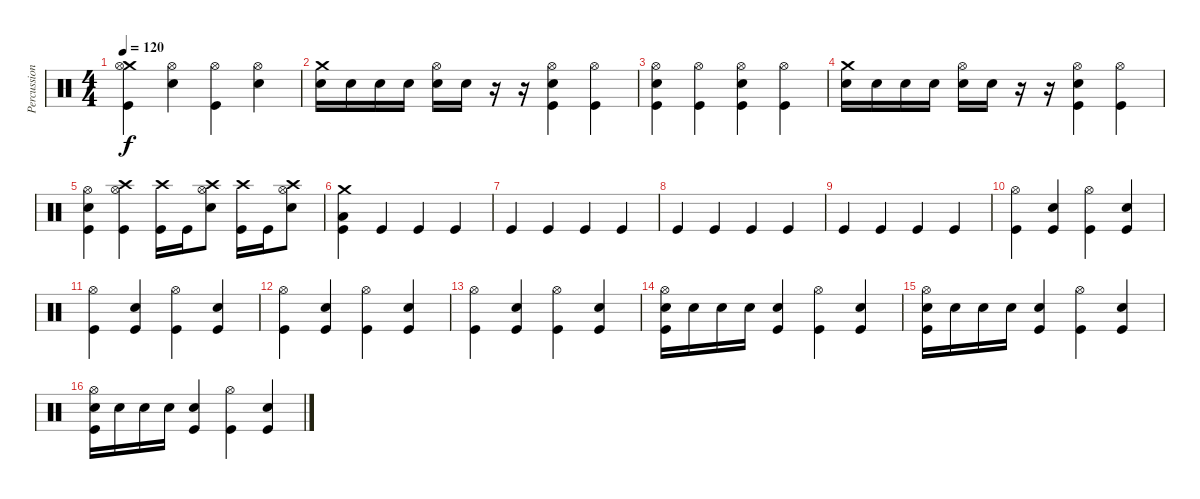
\track ("Percussion" "Percussion") {instrument percussion}
\staff {score}
\articulation defaults
\ts (4 4)
\tempo 120
\clef neutral
\ks c
("Crash medium (hit)" "Hi-Hat (open)" "Kick (hit)").4{dy f} ("Hi-Hat (open)" "Electric Snare (hit)").4 ("Hi-Hat (open)" "Kick (hit)").4 ("Hi-Hat (open)" "Electric Snare (hit)").4 |
("Crash medium (hit)" "Electric Snare (hit)").16 "Electric Snare (hit)".16 "Electric Snare (hit)".16 "Electric Snare (hit)".16 ("Hi-Hat (open)" "Electric Snare (hit)").16 "Electric Snare (hit)".16 r.16 r.16 ("Hi-Hat (open)" "Electric Snare (hit)" "Kick (hit)").4 ("Hi-Hat (open)" "Kick (hit)").4 |
("Hi-Hat (open)" "Electric Snare (hit)" "Kick (hit)").4 ("Hi-Hat (open)" "Kick (hit)").4 ("Hi-Hat (open)" "Electric Snare (hit)" "Kick (hit)").4 ("Hi-Hat (open)" "Kick (hit)").4 |
("Crash medium (hit)" "Electric Snare (hit)").16 "Electric Snare (hit)".16 "Electric Snare (hit)".16 "Electric Snare (hit)".16 ("Hi-Hat (open)" "Electric Snare (hit)").16 "Electric Snare (hit)".16 r.16 r.16 ("Hi-Hat (open)" "Electric Snare (hit)" "Kick (hit)").4 ("Hi-Hat (open)" "Kick (hit)").4 |
("Hi-Hat (open)" "Electric Snare (hit)" "Kick (hit)").4 ("Crash high (hit)" "Hi-Hat (open)" "Kick (hit)").4 ("Crash high (hit)" "Kick (hit)").16 "Kick (hit)".16 ("Crash high (hit)" "Hi-Hat (open)" "Electric Snare (hit)").8 ("Crash high (hit)" "Kick (hit)").16 "Kick (hit)".16 ("Crash high (hit)" "Hi-Hat (open)" "Electric Snare (hit)").8 |
("Crash medium (hit)" "Low Floor Tom (hit)" "Kick (hit)").4 "Kick (hit)".4 "Kick (hit)".4 "Kick (hit)".4 |
"Kick (hit)".4 "Kick (hit)".4 "Kick (hit)".4 "Kick (hit)".4 |
"Kick (hit)".4 "Kick (hit)".4 "Kick (hit)".4 "Kick (hit)".4 |
"Kick (hit)".4 "Kick (hit)".4 "Kick (hit)".4 "Kick (hit)".4 |
("Hi-Hat (open)" "Kick (hit)").4 ("Electric Snare (hit)" "Kick (hit)").4 ("Hi-Hat (open)" "Kick (hit)").4 ("Electric Snare (hit)" "Kick (hit)").4 |
("Hi-Hat (open)" "Kick (hit)").4 ("Electric Snare (hit)" "Kick (hit)").4 ("Hi-Hat (open)" "Kick (hit)").4 ("Electric Snare (hit)" "Kick (hit)").4 |
("Hi-Hat (open)" "Kick (hit)").4 ("Electric Snare (hit)" "Kick (hit)").4 ("Hi-Hat (open)" "Kick (hit)").4 ("Electric Snare (hit)" "Kick (hit)").4 |
("Hi-Hat (open)" "Kick (hit)").4 ("Electric Snare (hit)" "Kick (hit)").4 ("Hi-Hat (open)" "Kick (hit)").4 ("Electric Snare (hit)" "Kick (hit)").4 |
("Electric Snare (hit)" "Hi-Hat (open)" "Kick (hit)").16 "Electric Snare (hit)".16 "Electric Snare (hit)".16 "Electric Snare (hit)".16 ("Electric Snare (hit)" "Kick (hit)").4 ("Hi-Hat (open)" "Kick (hit)").4 ("Electric Snare (hit)" "Kick (hit)").4 |
("Electric Snare (hit)" "Hi-Hat (open)" "Kick (hit)").16 "Electric Snare (hit)".16 "Electric Snare (hit)".16 "Electric Snare (hit)".16 ("Electric Snare (hit)" "Kick (hit)").4 ("Hi-Hat (open)" "Kick (hit)").4 ("Electric Snare (hit)" "Kick (hit)").4 |
("Electric Snare (hit)" "Hi-Hat (open)" "Kick (hit)").16 "Electric Snare (hit)".16 "Electric Snare (hit)".16 "Electric Snare (hit)".16 ("Electric Snare (hit)" "Kick (hit)").4 ("Hi-Hat (open)" "Kick (hit)").4 ("Electric Snare (hit)" "Kick (hit)").4
